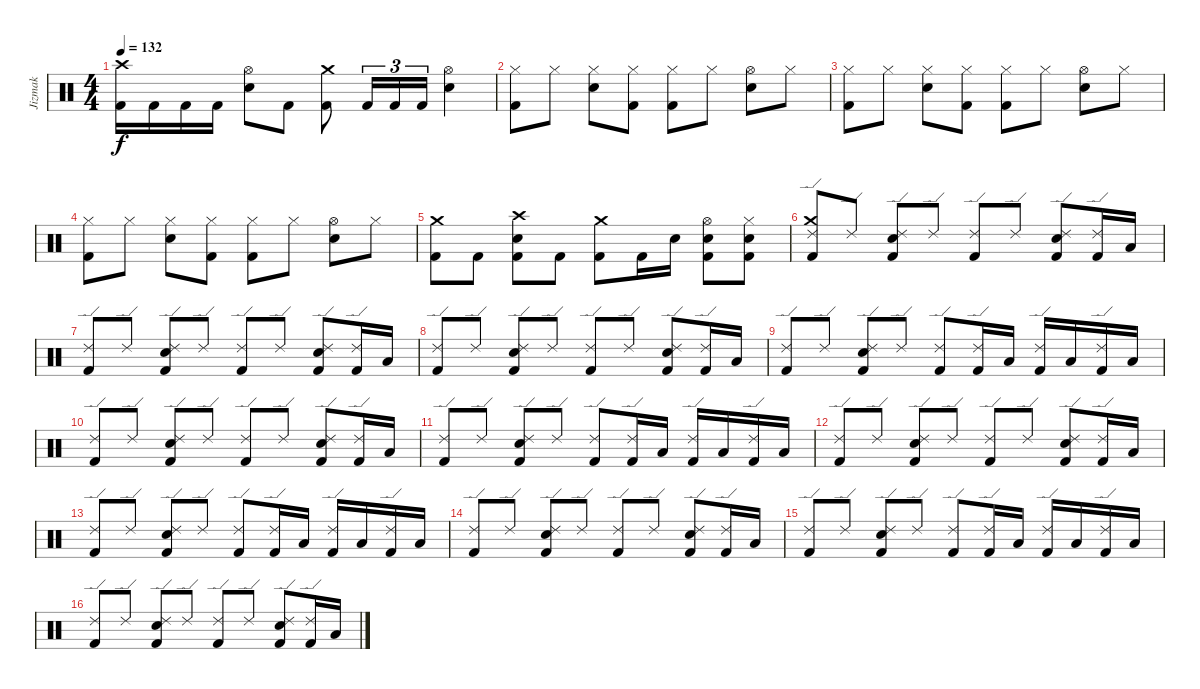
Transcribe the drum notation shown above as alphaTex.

\track ("Jizmak" "Jizmak") {instrument percussion}
\staff {score}
\articulation defaults
\ts (4 4)
\tempo 132
\clef neutral
\ks c
("Crash high (hit)" "Kick (hit) 2").16{dy f} "Kick (hit) 2".16 "Kick (hit) 2".16 "Kick (hit) 2".16 ("Hi-Hat (open)" "Snare (hit) 2").8 "Kick (hit) 2".8 ("Crash medium (hit)" "Kick (hit) 2").8 "Kick (hit) 2".16{tu (3 2)} "Kick (hit) 2".16{tu (3 2)} "Kick (hit) 2".16{tu (3 2)} ("Hi-Hat (open)" "Snare (hit) 2").4 |
("Hi-Hat (closed)" "Kick (hit) 2").8 "Hi-Hat (closed)".8 ("Hi-Hat (closed)" "Snare (hit) 2").8 ("Hi-Hat (closed)" "Kick (hit) 2").8 ("Hi-Hat (closed)" "Kick (hit) 2").8 "Hi-Hat (closed)".8 ("Hi-Hat (open)" "Snare (hit) 2").8 "Hi-Hat (closed)".8 |
("Hi-Hat (closed)" "Kick (hit) 2").8 "Hi-Hat (closed)".8 ("Hi-Hat (closed)" "Snare (hit) 2").8 ("Hi-Hat (closed)" "Kick (hit) 2").8 ("Hi-Hat (closed)" "Kick (hit) 2").8 "Hi-Hat (closed)".8 ("Hi-Hat (open)" "Snare (hit) 2").8 "Hi-Hat (closed)".8 |
("Hi-Hat (closed)" "Kick (hit) 2").8 "Hi-Hat (closed)".8 ("Hi-Hat (closed)" "Snare (hit) 2").8 ("Hi-Hat (closed)" "Kick (hit) 2").8 ("Hi-Hat (closed)" "Kick (hit) 2").8 "Hi-Hat (closed)".8 ("Hi-Hat (open)" "Snare (hit) 2").8 "Hi-Hat (closed)".8 |
("Crash medium (hit)" "Kick (hit) 2").8 "Kick (hit) 2".8 ("Crash high (hit)" "Kick (hit) 2" "Snare (hit) 2").8 "Kick (hit) 2".8 ("Crash medium (hit)" "Kick (hit) 2").8 "Kick (hit) 2".16 "Snare (hit) 2".16 ("Hi-Hat (open)" "Kick (hit) 2" "Snare (hit) 2").8 ("Hi-Hat (closed)" "Kick (hit) 2" "Snare (hit) 2").8 |
("Ride (edge) 2" "Kick (hit) 2" "Crash medium (hit)").8 "Ride (edge) 2".8 ("Ride (edge) 2" "Kick (hit) 2" "Snare (hit) 2").8 "Ride (edge) 2".8 ("Ride (edge) 2" "Kick (hit) 2").8 "Ride (edge) 2".8 ("Ride (edge) 2" "Kick (hit) 2" "Snare (hit) 2").8 ("Ride (edge) 2" "Kick (hit) 2").16 "Low Floor Tom (hit)".16 |
("Ride (edge) 2" "Kick (hit) 2").8 "Ride (edge) 2".8 ("Ride (edge) 2" "Kick (hit) 2" "Snare (hit) 2").8 "Ride (edge) 2".8 ("Ride (edge) 2" "Kick (hit) 2").8 "Ride (edge) 2".8 ("Ride (edge) 2" "Kick (hit) 2" "Snare (hit) 2").8 ("Ride (edge) 2" "Kick (hit) 2").16 "Low Floor Tom (hit)".16 |
("Ride (edge) 2" "Kick (hit) 2").8 "Ride (edge) 2".8 ("Ride (edge) 2" "Kick (hit) 2" "Snare (hit) 2").8 "Ride (edge) 2".8 ("Ride (edge) 2" "Kick (hit) 2").8 "Ride (edge) 2".8 ("Ride (edge) 2" "Kick (hit) 2" "Snare (hit) 2").8 ("Ride (edge) 2" "Kick (hit) 2").16 "Low Floor Tom (hit)".16 |
("Ride (edge) 2" "Kick (hit) 2").8 "Ride (edge) 2".8 ("Ride (edge) 2" "Kick (hit) 2" "Snare (hit) 2").8 "Ride (edge) 2".8 ("Ride (edge) 2" "Kick (hit) 2").8 ("Ride (edge) 2" "Kick (hit) 2").16 "Low Floor Tom (hit)".16 ("Ride (edge) 2" "Kick (hit) 2").16 "Low Floor Tom (hit)".16 ("Ride (edge) 2" "Kick (hit) 2").16 "Low Floor Tom (hit)".16 |
("Ride (edge) 2" "Kick (hit) 2").8 "Ride (edge) 2".8 ("Ride (edge) 2" "Kick (hit) 2" "Snare (hit) 2").8 "Ride (edge) 2".8 ("Ride (edge) 2" "Kick (hit) 2").8 "Ride (edge) 2".8 ("Ride (edge) 2" "Kick (hit) 2" "Snare (hit) 2").8 ("Ride (edge) 2" "Kick (hit) 2").16 "Low Floor Tom (hit)".16 |
("Ride (edge) 2" "Kick (hit) 2").8 "Ride (edge) 2".8 ("Ride (edge) 2" "Kick (hit) 2" "Snare (hit) 2").8 "Ride (edge) 2".8 ("Ride (edge) 2" "Kick (hit) 2").8 ("Ride (edge) 2" "Kick (hit) 2").16 "Low Floor Tom (hit)".16 ("Ride (edge) 2" "Kick (hit) 2").16 "Low Floor Tom (hit)".16 ("Ride (edge) 2" "Kick (hit) 2").16 "Low Floor Tom (hit)".16 |
("Ride (edge) 2" "Kick (hit) 2").8 "Ride (edge) 2".8 ("Ride (edge) 2" "Kick (hit) 2" "Snare (hit) 2").8 "Ride (edge) 2".8 ("Ride (edge) 2" "Kick (hit) 2").8 "Ride (edge) 2".8 ("Ride (edge) 2" "Kick (hit) 2" "Snare (hit) 2").8 ("Ride (edge) 2" "Kick (hit) 2").16 "Low Floor Tom (hit)".16 |
("Ride (edge) 2" "Kick (hit) 2").8 "Ride (edge) 2".8 ("Ride (edge) 2" "Kick (hit) 2" "Snare (hit) 2").8 "Ride (edge) 2".8 ("Ride (edge) 2" "Kick (hit) 2").8 ("Ride (edge) 2" "Kick (hit) 2").16 "Low Floor Tom (hit)".16 ("Ride (edge) 2" "Kick (hit) 2").16 "Low Floor Tom (hit)".16 ("Ride (edge) 2" "Kick (hit) 2").16 "Low Floor Tom (hit)".16 |
("Ride (edge) 2" "Kick (hit) 2").8 "Ride (edge) 2".8 ("Ride (edge) 2" "Kick (hit) 2" "Snare (hit) 2").8 "Ride (edge) 2".8 ("Ride (edge) 2" "Kick (hit) 2").8 "Ride (edge) 2".8 ("Ride (edge) 2" "Kick (hit) 2" "Snare (hit) 2").8 ("Ride (edge) 2" "Kick (hit) 2").16 "Low Floor Tom (hit)".16 |
("Ride (edge) 2" "Kick (hit) 2").8 "Ride (edge) 2".8 ("Ride (edge) 2" "Kick (hit) 2" "Snare (hit) 2").8 "Ride (edge) 2".8 ("Ride (edge) 2" "Kick (hit) 2").8 ("Ride (edge) 2" "Kick (hit) 2").16 "Low Floor Tom (hit)".16 ("Ride (edge) 2" "Kick (hit) 2").16 "Low Floor Tom (hit)".16 ("Ride (edge) 2" "Kick (hit) 2").16 "Low Floor Tom (hit)".16 |
("Ride (edge) 2" "Kick (hit) 2").8 "Ride (edge) 2".8 ("Ride (edge) 2" "Kick (hit) 2" "Snare (hit) 2").8 "Ride (edge) 2".8 ("Ride (edge) 2" "Kick (hit) 2").8 "Ride (edge) 2".8 ("Ride (edge) 2" "Kick (hit) 2" "Snare (hit) 2").8 ("Ride (edge) 2" "Kick (hit) 2").16 "Low Floor Tom (hit)".16
